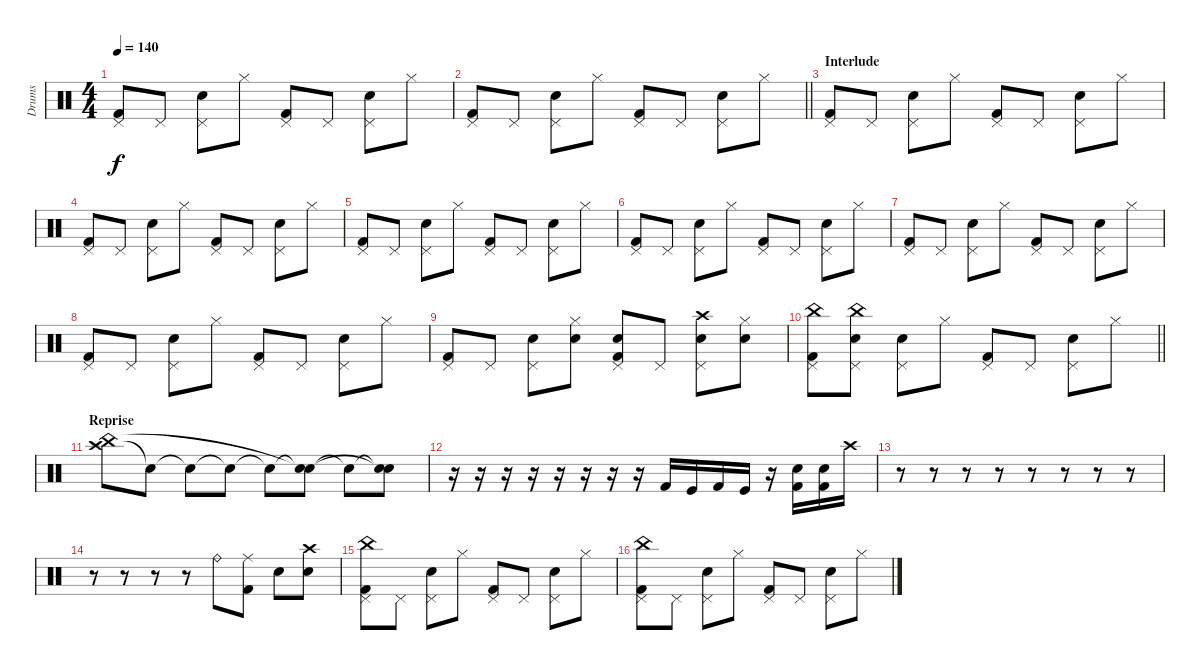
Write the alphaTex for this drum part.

\track ("Drums" "Drums") {instrument percussion}
\staff {score}
\articulation defaults
\ts (4 4)
\tempo 140
\clef neutral
\ks c
("Kick (hit) 2" "Pedal Hi-Hat (hit)").8{dy f} "Pedal Hi-Hat (hit)".8 ("Snare (hit) 2" "Pedal Hi-Hat (hit)").8 "Hi-Hat (closed)".8 ("Kick (hit) 2" "Pedal Hi-Hat (hit)").8 "Pedal Hi-Hat (hit)".8 ("Snare (hit) 2" "Pedal Hi-Hat (hit)").8 "Hi-Hat (closed)".8 |
\barLineRight lightlight
("Kick (hit) 2" "Pedal Hi-Hat (hit)").8 "Pedal Hi-Hat (hit)".8 ("Snare (hit) 2" "Pedal Hi-Hat (hit)").8 "Hi-Hat (closed)".8 ("Kick (hit) 2" "Pedal Hi-Hat (hit)").8 "Pedal Hi-Hat (hit)".8 ("Snare (hit) 2" "Pedal Hi-Hat (hit)").8 "Hi-Hat (closed)".8 |
\section ("" "Interlude")
("Kick (hit) 2" "Pedal Hi-Hat (hit)").8 "Pedal Hi-Hat (hit)".8 ("Snare (hit) 2" "Pedal Hi-Hat (hit)").8 "Hi-Hat (closed)".8 ("Kick (hit) 2" "Pedal Hi-Hat (hit)").8 "Pedal Hi-Hat (hit)".8 ("Snare (hit) 2" "Pedal Hi-Hat (hit)").8 "Hi-Hat (closed)".8 |
("Kick (hit) 2" "Pedal Hi-Hat (hit)").8 "Pedal Hi-Hat (hit)".8 ("Snare (hit) 2" "Pedal Hi-Hat (hit)").8 "Hi-Hat (closed)".8 ("Kick (hit) 2" "Pedal Hi-Hat (hit)").8 "Pedal Hi-Hat (hit)".8 ("Snare (hit) 2" "Pedal Hi-Hat (hit)").8 "Hi-Hat (closed)".8 |
("Kick (hit) 2" "Pedal Hi-Hat (hit)").8 "Pedal Hi-Hat (hit)".8 ("Snare (hit) 2" "Pedal Hi-Hat (hit)").8 "Hi-Hat (closed)".8 ("Kick (hit) 2" "Pedal Hi-Hat (hit)").8 "Pedal Hi-Hat (hit)".8 ("Snare (hit) 2" "Pedal Hi-Hat (hit)").8 "Hi-Hat (closed)".8 |
("Kick (hit) 2" "Pedal Hi-Hat (hit)").8 "Pedal Hi-Hat (hit)".8 ("Snare (hit) 2" "Pedal Hi-Hat (hit)").8 "Hi-Hat (closed)".8 ("Kick (hit) 2" "Pedal Hi-Hat (hit)").8 "Pedal Hi-Hat (hit)".8 ("Snare (hit) 2" "Pedal Hi-Hat (hit)").8 "Hi-Hat (closed)".8 |
("Kick (hit) 2" "Pedal Hi-Hat (hit)").8 "Pedal Hi-Hat (hit)".8 ("Snare (hit) 2" "Pedal Hi-Hat (hit)").8 "Hi-Hat (closed)".8 ("Kick (hit) 2" "Pedal Hi-Hat (hit)").8 "Pedal Hi-Hat (hit)".8 ("Snare (hit) 2" "Pedal Hi-Hat (hit)").8 "Hi-Hat (closed)".8 |
("Kick (hit) 2" "Pedal Hi-Hat (hit)").8 "Pedal Hi-Hat (hit)".8 ("Snare (hit) 2" "Pedal Hi-Hat (hit)").8 "Hi-Hat (closed)".8 ("Kick (hit) 2" "Pedal Hi-Hat (hit)").8 "Pedal Hi-Hat (hit)".8 ("Snare (hit) 2" "Pedal Hi-Hat (hit)").8 "Hi-Hat (closed)".8 |
("Kick (hit) 2" "Pedal Hi-Hat (hit)").8 "Pedal Hi-Hat (hit)".8 ("Snare (hit) 2" "Pedal Hi-Hat (hit)").8 ("Snare (hit) 2" "Hi-Hat (closed)").8 ("Kick (hit) 2" "Snare (hit) 2" "Pedal Hi-Hat (hit)").8 "Pedal Hi-Hat (hit)".8 ("Snare (hit) 2" "Crash high (hit)" "Pedal Hi-Hat (hit)").8 ("Snare (hit) 2" "Hi-Hat (closed)").8 |
\barLineRight lightlight
("Kick (hit) 2" "China (hit)" "Pedal Hi-Hat (hit)").8 ("Snare (hit) 2" "China (hit)" "Pedal Hi-Hat (hit)").8 ("Snare (hit) 2" "Pedal Hi-Hat (hit)").8 "Hi-Hat (closed)".8 ("Kick (hit) 2" "Pedal Hi-Hat (hit)").8 "Pedal Hi-Hat (hit)".8 ("Snare (hit) 2" "Pedal Hi-Hat (hit)").8 "Hi-Hat (closed)".8 |
\section ("" "Reprise")
("Crash high (hit)" "China (hit)").8 "Snare (hit)"{t}.8 "Snare (hit)"{t}.8 "Snare (hit)"{t}.8 "Snare (hit)"{t}.8 ("Snare (hit)"{t} "Snare (hit)"{t}).8 "Snare (hit)"{t}.8 ("Snare (hit)"{t} "Snare (hit)"{t}).8 |
r.16 r.16 r.16 r.16 r.16 r.16 r.16 r.16 "Kick (hit) 2".16 "Kick (hit)".16 "Kick (hit) 2".16 "Kick (hit)".16 r.16 ("Kick (hit) 2" "Snare (hit) 2").16 ("Kick (hit) 2" "Snare (hit) 2").16 "Crash high (hit)".16 |
r.8 r.8 r.8 r.8 r.8 r.8 r.8 r.8 |
r.8 r.8 r.8 r.8 "Ride (bell)".8 ("Ride (middle)" "Kick (hit) 2").8 "Snare (hit) 2".8 ("Snare (hit) 2" "Crash high (hit)").8 |
("Kick (hit) 2" "China (hit)" "Pedal Hi-Hat (hit)").8 "Pedal Hi-Hat (hit)".8 ("Snare (hit) 2" "Pedal Hi-Hat (hit)").8 "Hi-Hat (closed)".8 ("Kick (hit) 2" "Pedal Hi-Hat (hit)").8 "Pedal Hi-Hat (hit)".8 ("Snare (hit) 2" "Pedal Hi-Hat (hit)").8 "Hi-Hat (closed)".8 |
("Kick (hit) 2" "China (hit)" "Pedal Hi-Hat (hit)").8 "Pedal Hi-Hat (hit)".8 ("Snare (hit) 2" "Pedal Hi-Hat (hit)").8 "Hi-Hat (closed)".8 ("Kick (hit) 2" "Pedal Hi-Hat (hit)").8 "Pedal Hi-Hat (hit)".8 ("Snare (hit) 2" "Pedal Hi-Hat (hit)").8 "Hi-Hat (closed)".8
